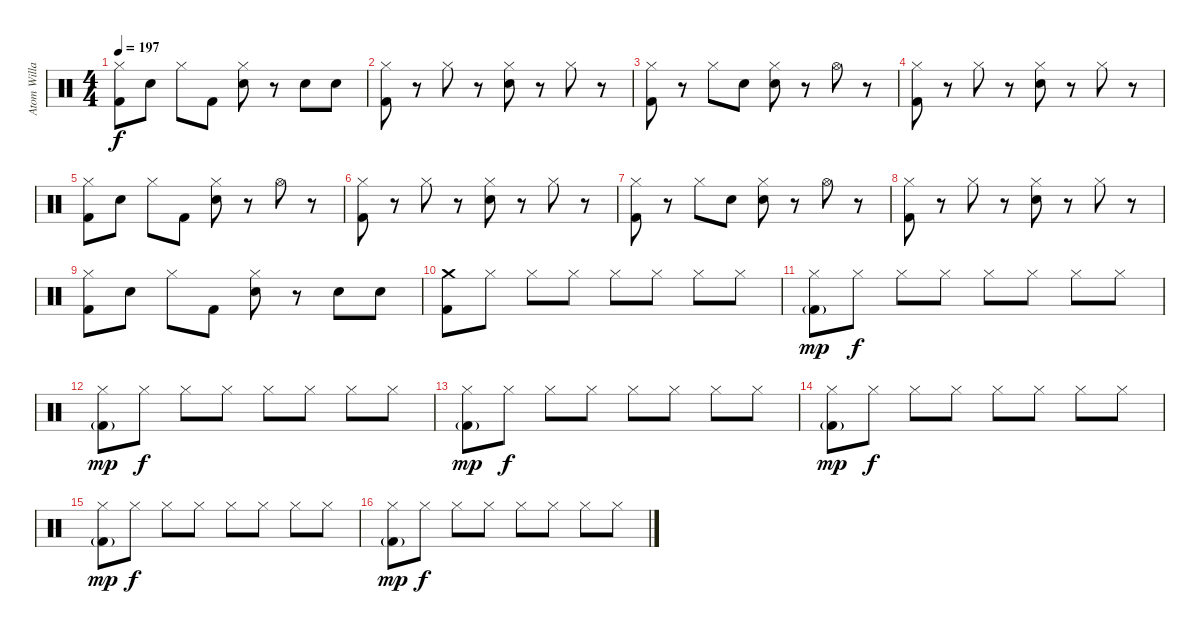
\track ("Atom Willard Drums" "Atom Willa") {instrument percussion}
\staff {score}
\articulation defaults
\ts (4 4)
\tempo 197
\clef neutral
\ks c
("Hi-Hat (closed)" "Kick (hit) 2").8{dy f} "Electric Snare (hit)".8 "Hi-Hat (closed)".8 "Kick (hit) 2".8 ("Hi-Hat (closed)" "Electric Snare (hit)").8 r.8 "Electric Snare (hit)".8 "Electric Snare (hit)".8 |
("Hi-Hat (closed)" "Kick (hit) 2").8 r.8 "Hi-Hat (closed)".8 r.8 ("Hi-Hat (closed)" "Electric Snare (hit)").8 r.8 "Hi-Hat (closed)".8 r.8 |
("Hi-Hat (closed)" "Kick (hit) 2").8 r.8 "Hi-Hat (closed)".8 "Electric Snare (hit)".8 ("Hi-Hat (closed)" "Electric Snare (hit)").8 r.8 "Hi-Hat (open)".8 r.8 |
("Hi-Hat (closed)" "Kick (hit) 2").8 r.8 "Hi-Hat (closed)".8 r.8 ("Hi-Hat (closed)" "Electric Snare (hit)").8 r.8 "Hi-Hat (closed)".8 r.8 |
("Hi-Hat (closed)" "Kick (hit) 2").8 "Electric Snare (hit)".8 "Hi-Hat (closed)".8 "Kick (hit) 2".8 ("Hi-Hat (closed)" "Electric Snare (hit)").8 r.8 "Hi-Hat (open)".8 r.8 |
("Hi-Hat (closed)" "Kick (hit) 2").8 r.8 "Hi-Hat (closed)".8 r.8 ("Hi-Hat (closed)" "Electric Snare (hit)").8 r.8 "Hi-Hat (closed)".8 r.8 |
("Hi-Hat (closed)" "Kick (hit) 2").8 r.8 "Hi-Hat (closed)".8 "Electric Snare (hit)".8 ("Hi-Hat (closed)" "Electric Snare (hit)").8 r.8 "Hi-Hat (open)".8 r.8 |
("Hi-Hat (closed)" "Kick (hit) 2").8 r.8 "Hi-Hat (closed)".8 r.8 ("Hi-Hat (closed)" "Electric Snare (hit)").8 r.8 "Hi-Hat (closed)".8 r.8 |
("Hi-Hat (closed)" "Kick (hit) 2").8 "Electric Snare (hit)".8 "Hi-Hat (closed)".8 "Kick (hit) 2".8 ("Hi-Hat (closed)" "Electric Snare (hit)").8 r.8 "Electric Snare (hit)".8 "Electric Snare (hit)".8 |
("Crash medium (hit)" "Kick (hit) 2").8 "Hi-Hat (closed)".8 "Hi-Hat (closed)".8 "Hi-Hat (closed)".8 "Hi-Hat (closed)".8 "Hi-Hat (closed)".8 "Hi-Hat (closed)".8 "Hi-Hat (closed)".8 |
("Hi-Hat (closed)" "Kick (hit) 2"{g}).8{dy mp} "Hi-Hat (closed)".8{dy f} "Hi-Hat (closed)".8 "Hi-Hat (closed)".8 "Hi-Hat (closed)".8 "Hi-Hat (closed)".8 "Hi-Hat (closed)".8 "Hi-Hat (closed)".8 |
("Hi-Hat (closed)" "Kick (hit) 2"{g}).8{dy mp} "Hi-Hat (closed)".8{dy f} "Hi-Hat (closed)".8 "Hi-Hat (closed)".8 "Hi-Hat (closed)".8 "Hi-Hat (closed)".8 "Hi-Hat (closed)".8 "Hi-Hat (closed)".8 |
("Hi-Hat (closed)" "Kick (hit) 2"{g}).8{dy mp} "Hi-Hat (closed)".8{dy f} "Hi-Hat (closed)".8 "Hi-Hat (closed)".8 "Hi-Hat (closed)".8 "Hi-Hat (closed)".8 "Hi-Hat (closed)".8 "Hi-Hat (closed)".8 |
("Hi-Hat (closed)" "Kick (hit) 2"{g}).8{dy mp} "Hi-Hat (closed)".8{dy f} "Hi-Hat (closed)".8 "Hi-Hat (closed)".8 "Hi-Hat (closed)".8 "Hi-Hat (closed)".8 "Hi-Hat (closed)".8 "Hi-Hat (closed)".8 |
("Hi-Hat (closed)" "Kick (hit) 2"{g}).8{dy mp} "Hi-Hat (closed)".8{dy f} "Hi-Hat (closed)".8 "Hi-Hat (closed)".8 "Hi-Hat (closed)".8 "Hi-Hat (closed)".8 "Hi-Hat (closed)".8 "Hi-Hat (closed)".8 |
("Hi-Hat (closed)" "Kick (hit) 2"{g}).8{dy mp} "Hi-Hat (closed)".8{dy f} "Hi-Hat (closed)".8 "Hi-Hat (closed)".8 "Hi-Hat (closed)".8 "Hi-Hat (closed)".8 "Hi-Hat (closed)".8 "Hi-Hat (closed)".8
